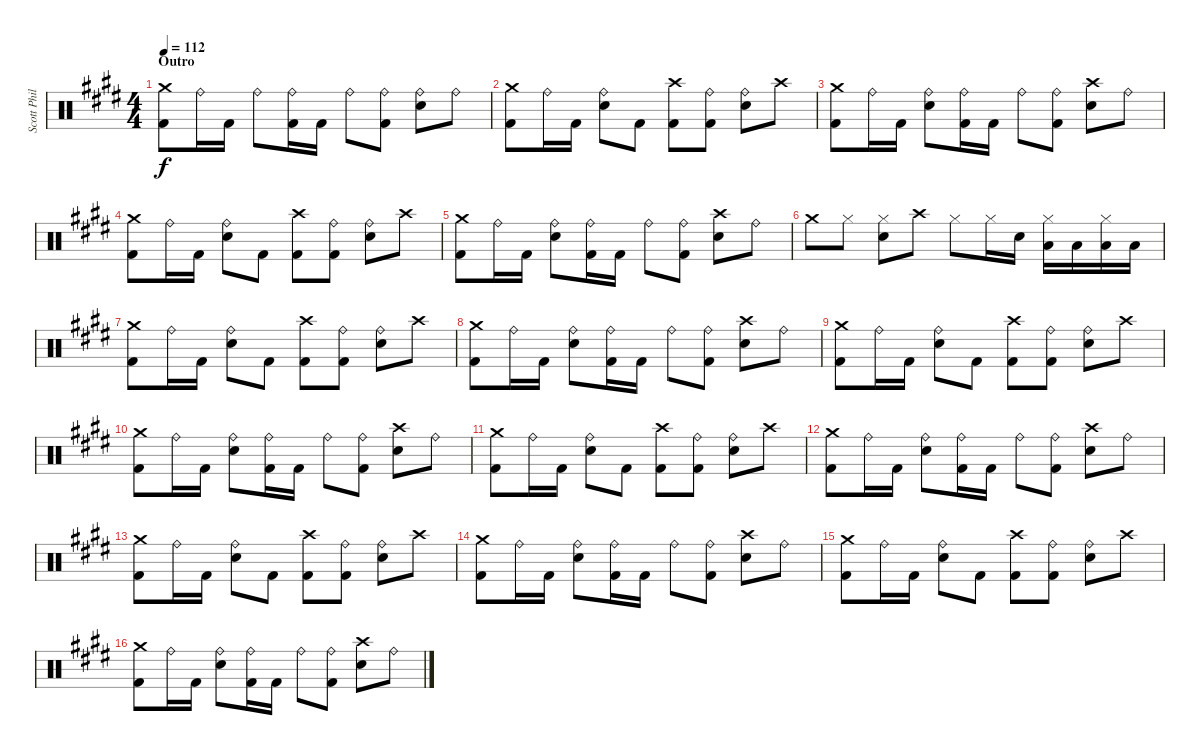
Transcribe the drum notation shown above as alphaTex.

\track ("Scott Phillips" "Scott Phil") {instrument percussion}
\staff {score}
\articulation defaults
\ts (4 4)
\section ("" "Outro")
\tempo 112
\clef neutral
\ks c#minor
("Crash medium (hit)" "Kick (hit) 2").8{dy f} "Ride (bell)".16 "Kick (hit) 2".16 "Ride (bell)".8 ("Ride (bell)" "Kick (hit) 2").16 "Kick (hit) 2".16 "Ride (bell)".8 ("Ride (bell)" "Kick (hit) 2").8 ("Ride (bell)" "Electric Snare (hit)").8 "Ride (bell)".8 |
("Crash medium (hit)" "Kick (hit) 2").8 "Ride (bell)".16 "Kick (hit) 2".16 ("Ride (bell)" "Electric Snare (hit)").8 "Kick (hit) 2".8 ("Crash high (hit)" "Kick (hit) 2").8 ("Ride (bell)" "Kick (hit) 2").8 ("Ride (bell)" "Electric Snare (hit)").8 "Crash high (hit)".8 |
("Crash medium (hit)" "Kick (hit) 2").8 "Ride (bell)".16 "Kick (hit) 2".16 ("Ride (bell)" "Electric Snare (hit)").8 ("Ride (bell)" "Kick (hit) 2").16 "Kick (hit) 2".16 "Ride (bell)".8 ("Ride (bell)" "Kick (hit) 2").8 ("Crash high (hit)" "Electric Snare (hit)").8 "Ride (bell)".8 |
("Crash medium (hit)" "Kick (hit) 2").8 "Ride (bell)".16 "Kick (hit) 2".16 ("Ride (bell)" "Electric Snare (hit)").8 "Kick (hit) 2".8 ("Crash high (hit)" "Kick (hit) 2").8 ("Ride (bell)" "Kick (hit) 2").8 ("Ride (bell)" "Electric Snare (hit)").8 "Crash high (hit)".8 |
("Crash medium (hit)" "Kick (hit) 2").8 "Ride (bell)".16 "Kick (hit) 2".16 ("Ride (bell)" "Electric Snare (hit)").8 ("Ride (bell)" "Kick (hit) 2").16 "Kick (hit) 2".16 "Ride (bell)".8 ("Ride (bell)" "Kick (hit) 2").8 ("Crash high (hit)" "Electric Snare (hit)").8 "Ride (bell)".8 |
"Crash medium (hit)".8 "Hi-Hat (closed)".8 ("Hi-Hat (closed)" "Electric Snare (hit)").8 "Crash high (hit)".8 "Hi-Hat (closed)".8 "Hi-Hat (closed)".16 "Electric Snare (hit)".16 ("Hi-Hat (closed)" "Low Floor Tom (hit)").16 "Low Floor Tom (hit)".16 ("Hi-Hat (closed)" "Low Floor Tom (hit)").16 "Low Floor Tom (hit)".16 |
("Crash medium (hit)" "Kick (hit) 2").8 "Ride (bell)".16 "Kick (hit) 2".16 ("Ride (bell)" "Electric Snare (hit)").8 "Kick (hit) 2".8 ("Crash high (hit)" "Kick (hit) 2").8 ("Ride (bell)" "Kick (hit) 2").8 ("Ride (bell)" "Electric Snare (hit)").8 "Crash high (hit)".8 |
("Crash medium (hit)" "Kick (hit) 2").8 "Ride (bell)".16 "Kick (hit) 2".16 ("Ride (bell)" "Electric Snare (hit)").8 ("Ride (bell)" "Kick (hit) 2").16 "Kick (hit) 2".16 "Ride (bell)".8 ("Ride (bell)" "Kick (hit) 2").8 ("Crash high (hit)" "Electric Snare (hit)").8 "Ride (bell)".8 |
("Crash medium (hit)" "Kick (hit) 2").8 "Ride (bell)".16 "Kick (hit) 2".16 ("Ride (bell)" "Electric Snare (hit)").8 "Kick (hit) 2".8 ("Crash high (hit)" "Kick (hit) 2").8 ("Ride (bell)" "Kick (hit) 2").8 ("Ride (bell)" "Electric Snare (hit)").8 "Crash high (hit)".8 |
("Crash medium (hit)" "Kick (hit) 2").8 "Ride (bell)".16 "Kick (hit) 2".16 ("Ride (bell)" "Electric Snare (hit)").8 ("Ride (bell)" "Kick (hit) 2").16 "Kick (hit) 2".16 "Ride (bell)".8 ("Ride (bell)" "Kick (hit) 2").8 ("Crash high (hit)" "Electric Snare (hit)").8 "Ride (bell)".8 |
("Crash medium (hit)" "Kick (hit) 2").8 "Ride (bell)".16 "Kick (hit) 2".16 ("Ride (bell)" "Electric Snare (hit)").8 "Kick (hit) 2".8 ("Crash high (hit)" "Kick (hit) 2").8 ("Ride (bell)" "Kick (hit) 2").8 ("Ride (bell)" "Electric Snare (hit)").8 "Crash high (hit)".8 |
("Crash medium (hit)" "Kick (hit) 2").8 "Ride (bell)".16 "Kick (hit) 2".16 ("Ride (bell)" "Electric Snare (hit)").8 ("Ride (bell)" "Kick (hit) 2").16 "Kick (hit) 2".16 "Ride (bell)".8 ("Ride (bell)" "Kick (hit) 2").8 ("Crash high (hit)" "Electric Snare (hit)").8 "Ride (bell)".8 |
("Crash medium (hit)" "Kick (hit) 2").8 "Ride (bell)".16 "Kick (hit) 2".16 ("Ride (bell)" "Electric Snare (hit)").8 "Kick (hit) 2".8 ("Crash high (hit)" "Kick (hit) 2").8 ("Ride (bell)" "Kick (hit) 2").8 ("Ride (bell)" "Electric Snare (hit)").8 "Crash high (hit)".8 |
("Crash medium (hit)" "Kick (hit) 2").8 "Ride (bell)".16 "Kick (hit) 2".16 ("Ride (bell)" "Electric Snare (hit)").8 ("Ride (bell)" "Kick (hit) 2").16 "Kick (hit) 2".16 "Ride (bell)".8 ("Ride (bell)" "Kick (hit) 2").8 ("Crash high (hit)" "Electric Snare (hit)").8 "Ride (bell)".8 |
("Crash medium (hit)" "Kick (hit) 2").8 "Ride (bell)".16 "Kick (hit) 2".16 ("Ride (bell)" "Electric Snare (hit)").8 "Kick (hit) 2".8 ("Crash high (hit)" "Kick (hit) 2").8 ("Ride (bell)" "Kick (hit) 2").8 ("Ride (bell)" "Electric Snare (hit)").8 "Crash high (hit)".8 |
("Crash medium (hit)" "Kick (hit) 2").8 "Ride (bell)".16 "Kick (hit) 2".16 ("Ride (bell)" "Electric Snare (hit)").8 ("Ride (bell)" "Kick (hit) 2").16 "Kick (hit) 2".16 "Ride (bell)".8 ("Ride (bell)" "Kick (hit) 2").8 ("Crash high (hit)" "Electric Snare (hit)").8 "Ride (bell)".8
